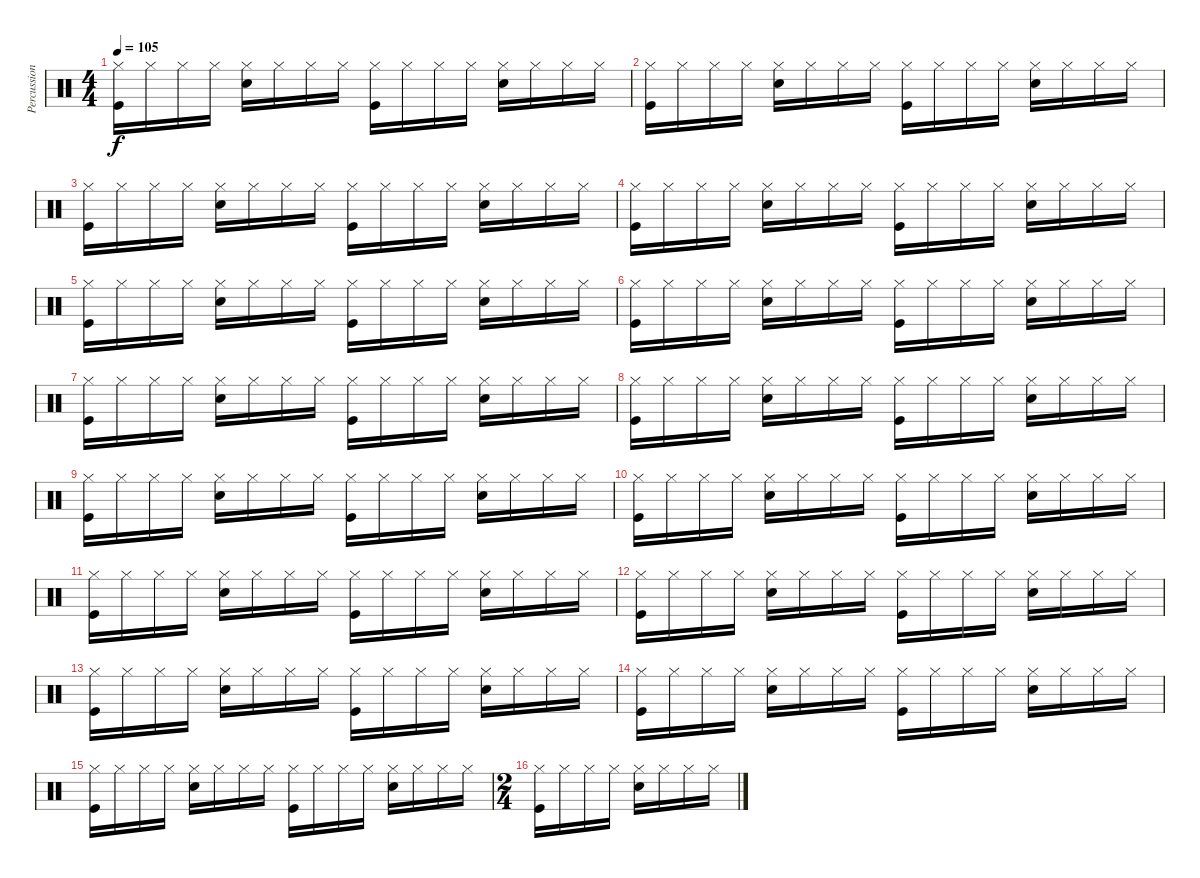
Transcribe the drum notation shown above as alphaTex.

\track ("Percussion" "Percussion") {instrument percussion}
\staff {score}
\articulation defaults
\ts (4 4)
\tempo 105
\clef neutral
\ks c
("Hi-Hat (closed)" "Kick (hit)").16{dy f} "Hi-Hat (closed)".16 "Hi-Hat (closed)".16 "Hi-Hat (closed)".16 ("Hi-Hat (closed)" "Snare (hit) 2").16 "Hi-Hat (closed)".16 "Hi-Hat (closed)".16 "Hi-Hat (closed)".16 ("Hi-Hat (closed)" "Kick (hit)").16 "Hi-Hat (closed)".16 "Hi-Hat (closed)".16 "Hi-Hat (closed)".16 ("Hi-Hat (closed)" "Snare (hit) 2").16 "Hi-Hat (closed)".16 "Hi-Hat (closed)".16 "Hi-Hat (closed)".16 |
("Hi-Hat (closed)" "Kick (hit)").16 "Hi-Hat (closed)".16 "Hi-Hat (closed)".16 "Hi-Hat (closed)".16 ("Hi-Hat (closed)" "Snare (hit) 2").16 "Hi-Hat (closed)".16 "Hi-Hat (closed)".16 "Hi-Hat (closed)".16 ("Hi-Hat (closed)" "Kick (hit)").16 "Hi-Hat (closed)".16 "Hi-Hat (closed)".16 "Hi-Hat (closed)".16 ("Hi-Hat (closed)" "Snare (hit) 2").16 "Hi-Hat (closed)".16 "Hi-Hat (closed)".16 "Hi-Hat (closed)".16 |
("Hi-Hat (closed)" "Kick (hit)").16 "Hi-Hat (closed)".16 "Hi-Hat (closed)".16 "Hi-Hat (closed)".16 ("Hi-Hat (closed)" "Snare (hit) 2").16 "Hi-Hat (closed)".16 "Hi-Hat (closed)".16 "Hi-Hat (closed)".16 ("Hi-Hat (closed)" "Kick (hit)").16 "Hi-Hat (closed)".16 "Hi-Hat (closed)".16 "Hi-Hat (closed)".16 ("Hi-Hat (closed)" "Snare (hit) 2").16 "Hi-Hat (closed)".16 "Hi-Hat (closed)".16 "Hi-Hat (closed)".16 |
("Hi-Hat (closed)" "Kick (hit)").16 "Hi-Hat (closed)".16 "Hi-Hat (closed)".16 "Hi-Hat (closed)".16 ("Hi-Hat (closed)" "Snare (hit) 2").16 "Hi-Hat (closed)".16 "Hi-Hat (closed)".16 "Hi-Hat (closed)".16 ("Hi-Hat (closed)" "Kick (hit)").16 "Hi-Hat (closed)".16 "Hi-Hat (closed)".16 "Hi-Hat (closed)".16 ("Hi-Hat (closed)" "Snare (hit) 2").16 "Hi-Hat (closed)".16 "Hi-Hat (closed)".16 "Hi-Hat (closed)".16 |
("Hi-Hat (closed)" "Kick (hit)").16 "Hi-Hat (closed)".16 "Hi-Hat (closed)".16 "Hi-Hat (closed)".16 ("Hi-Hat (closed)" "Snare (hit) 2").16 "Hi-Hat (closed)".16 "Hi-Hat (closed)".16 "Hi-Hat (closed)".16 ("Hi-Hat (closed)" "Kick (hit)").16 "Hi-Hat (closed)".16 "Hi-Hat (closed)".16 "Hi-Hat (closed)".16 ("Hi-Hat (closed)" "Snare (hit) 2").16 "Hi-Hat (closed)".16 "Hi-Hat (closed)".16 "Hi-Hat (closed)".16 |
("Hi-Hat (closed)" "Kick (hit)").16 "Hi-Hat (closed)".16 "Hi-Hat (closed)".16 "Hi-Hat (closed)".16 ("Hi-Hat (closed)" "Snare (hit) 2").16 "Hi-Hat (closed)".16 "Hi-Hat (closed)".16 "Hi-Hat (closed)".16 ("Hi-Hat (closed)" "Kick (hit)").16 "Hi-Hat (closed)".16 "Hi-Hat (closed)".16 "Hi-Hat (closed)".16 ("Hi-Hat (closed)" "Snare (hit) 2").16 "Hi-Hat (closed)".16 "Hi-Hat (closed)".16 "Hi-Hat (closed)".16 |
("Hi-Hat (closed)" "Kick (hit)").16 "Hi-Hat (closed)".16 "Hi-Hat (closed)".16 "Hi-Hat (closed)".16 ("Hi-Hat (closed)" "Snare (hit) 2").16 "Hi-Hat (closed)".16 "Hi-Hat (closed)".16 "Hi-Hat (closed)".16 ("Hi-Hat (closed)" "Kick (hit)").16 "Hi-Hat (closed)".16 "Hi-Hat (closed)".16 "Hi-Hat (closed)".16 ("Hi-Hat (closed)" "Snare (hit) 2").16 "Hi-Hat (closed)".16 "Hi-Hat (closed)".16 "Hi-Hat (closed)".16 |
("Hi-Hat (closed)" "Kick (hit)").16 "Hi-Hat (closed)".16 "Hi-Hat (closed)".16 "Hi-Hat (closed)".16 ("Hi-Hat (closed)" "Snare (hit) 2").16 "Hi-Hat (closed)".16 "Hi-Hat (closed)".16 "Hi-Hat (closed)".16 ("Hi-Hat (closed)" "Kick (hit)").16 "Hi-Hat (closed)".16 "Hi-Hat (closed)".16 "Hi-Hat (closed)".16 ("Hi-Hat (closed)" "Snare (hit) 2").16 "Hi-Hat (closed)".16 "Hi-Hat (closed)".16 "Hi-Hat (closed)".16 |
("Hi-Hat (closed)" "Kick (hit)").16 "Hi-Hat (closed)".16 "Hi-Hat (closed)".16 "Hi-Hat (closed)".16 ("Hi-Hat (closed)" "Snare (hit) 2").16 "Hi-Hat (closed)".16 "Hi-Hat (closed)".16 "Hi-Hat (closed)".16 ("Hi-Hat (closed)" "Kick (hit)").16 "Hi-Hat (closed)".16 "Hi-Hat (closed)".16 "Hi-Hat (closed)".16 ("Hi-Hat (closed)" "Snare (hit) 2").16 "Hi-Hat (closed)".16 "Hi-Hat (closed)".16 "Hi-Hat (closed)".16 |
("Hi-Hat (closed)" "Kick (hit)").16 "Hi-Hat (closed)".16 "Hi-Hat (closed)".16 "Hi-Hat (closed)".16 ("Hi-Hat (closed)" "Snare (hit) 2").16 "Hi-Hat (closed)".16 "Hi-Hat (closed)".16 "Hi-Hat (closed)".16 ("Hi-Hat (closed)" "Kick (hit)").16 "Hi-Hat (closed)".16 "Hi-Hat (closed)".16 "Hi-Hat (closed)".16 ("Hi-Hat (closed)" "Snare (hit) 2").16 "Hi-Hat (closed)".16 "Hi-Hat (closed)".16 "Hi-Hat (closed)".16 |
("Hi-Hat (closed)" "Kick (hit)").16 "Hi-Hat (closed)".16 "Hi-Hat (closed)".16 "Hi-Hat (closed)".16 ("Hi-Hat (closed)" "Snare (hit) 2").16 "Hi-Hat (closed)".16 "Hi-Hat (closed)".16 "Hi-Hat (closed)".16 ("Hi-Hat (closed)" "Kick (hit)").16 "Hi-Hat (closed)".16 "Hi-Hat (closed)".16 "Hi-Hat (closed)".16 ("Hi-Hat (closed)" "Snare (hit) 2").16 "Hi-Hat (closed)".16 "Hi-Hat (closed)".16 "Hi-Hat (closed)".16 |
("Hi-Hat (closed)" "Kick (hit)").16 "Hi-Hat (closed)".16 "Hi-Hat (closed)".16 "Hi-Hat (closed)".16 ("Hi-Hat (closed)" "Snare (hit) 2").16 "Hi-Hat (closed)".16 "Hi-Hat (closed)".16 "Hi-Hat (closed)".16 ("Hi-Hat (closed)" "Kick (hit)").16 "Hi-Hat (closed)".16 "Hi-Hat (closed)".16 "Hi-Hat (closed)".16 ("Hi-Hat (closed)" "Snare (hit) 2").16 "Hi-Hat (closed)".16 "Hi-Hat (closed)".16 "Hi-Hat (closed)".16 |
("Hi-Hat (closed)" "Kick (hit)").16 "Hi-Hat (closed)".16 "Hi-Hat (closed)".16 "Hi-Hat (closed)".16 ("Hi-Hat (closed)" "Snare (hit) 2").16 "Hi-Hat (closed)".16 "Hi-Hat (closed)".16 "Hi-Hat (closed)".16 ("Hi-Hat (closed)" "Kick (hit)").16 "Hi-Hat (closed)".16 "Hi-Hat (closed)".16 "Hi-Hat (closed)".16 ("Hi-Hat (closed)" "Snare (hit) 2").16 "Hi-Hat (closed)".16 "Hi-Hat (closed)".16 "Hi-Hat (closed)".16 |
("Hi-Hat (closed)" "Kick (hit)").16 "Hi-Hat (closed)".16 "Hi-Hat (closed)".16 "Hi-Hat (closed)".16 ("Hi-Hat (closed)" "Snare (hit) 2").16 "Hi-Hat (closed)".16 "Hi-Hat (closed)".16 "Hi-Hat (closed)".16 ("Hi-Hat (closed)" "Kick (hit)").16 "Hi-Hat (closed)".16 "Hi-Hat (closed)".16 "Hi-Hat (closed)".16 ("Hi-Hat (closed)" "Snare (hit) 2").16 "Hi-Hat (closed)".16 "Hi-Hat (closed)".16 "Hi-Hat (closed)".16 |
("Hi-Hat (closed)" "Kick (hit)").16 "Hi-Hat (closed)".16 "Hi-Hat (closed)".16 "Hi-Hat (closed)".16 ("Hi-Hat (closed)" "Snare (hit) 2").16 "Hi-Hat (closed)".16 "Hi-Hat (closed)".16 "Hi-Hat (closed)".16 ("Hi-Hat (closed)" "Kick (hit)").16 "Hi-Hat (closed)".16 "Hi-Hat (closed)".16 "Hi-Hat (closed)".16 ("Hi-Hat (closed)" "Snare (hit) 2").16 "Hi-Hat (closed)".16 "Hi-Hat (closed)".16 "Hi-Hat (closed)".16 |
\ts (2 4)
("Hi-Hat (closed)" "Kick (hit)").16 "Hi-Hat (closed)".16 "Hi-Hat (closed)".16 "Hi-Hat (closed)".16 ("Hi-Hat (closed)" "Snare (hit) 2").16 "Hi-Hat (closed)".16 "Hi-Hat (closed)".16 "Hi-Hat (closed)".16
